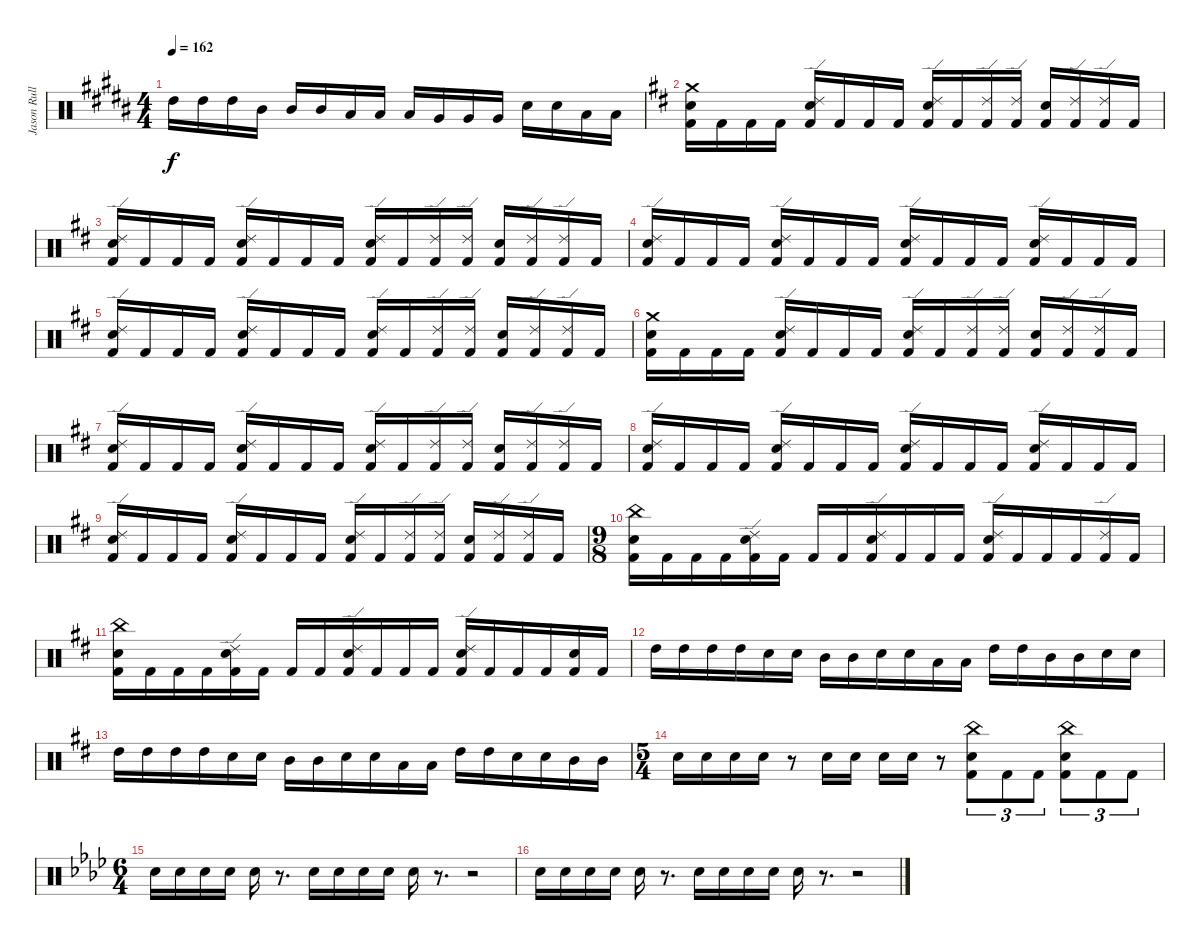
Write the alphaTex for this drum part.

\track ("Jason Rullo" "Jason Rull") {instrument percussion}
\staff {score}
\articulation defaults
\ts (4 4)
\tempo 162
\clef neutral
\ks g#minor "High Tom (hit)".16{dy f} "High Tom (hit)".16 "High Tom (hit)".16 "Mid Tom (hit)".16 "Mid Tom (hit)".16 "Mid Tom (hit)".16 "Low Tom (hit)".16 "Low Tom (hit)".16 "Low Tom (hit)".16 "Very Low Tom (hit)".16 "Very Low Tom (hit)".16 "Very Low Tom (hit)".16 "Electric Snare (hit)".16 "Electric Snare (hit)".16 "Low Tom (hit)".16 "Low Tom (hit)".16
|
\ks d
("Kick (hit) 2" "Electric Snare (hit)" "Crash medium (hit)").16 "Kick (hit) 2".16 "Kick (hit) 2".16 "Kick (hit) 2".16 ("Ride (edge) 2" "Electric Snare (hit)" "Kick (hit) 2").16 "Kick (hit) 2".16 "Kick (hit) 2".16 "Kick (hit) 2".16 ("Ride (edge) 2" "Electric Snare (hit)" "Kick (hit) 2").16 "Kick (hit) 2".16 ("Ride (edge) 2" "Kick (hit) 2").16 ("Ride (edge) 2" "Kick (hit) 2").16 ("Electric Snare (hit)" "Kick (hit) 2").16 ("Ride (edge) 2" "Kick (hit) 2").16 ("Ride (edge) 2" "Kick (hit) 2").16 "Kick (hit) 2".16 |
("Kick (hit) 2" "Electric Snare (hit)" "Ride (edge) 2").16 "Kick (hit) 2".16 "Kick (hit) 2".16 "Kick (hit) 2".16 ("Ride (edge) 2" "Electric Snare (hit)" "Kick (hit) 2").16 "Kick (hit) 2".16 "Kick (hit) 2".16 "Kick (hit) 2".16 ("Ride (edge) 2" "Electric Snare (hit)" "Kick (hit) 2").16 "Kick (hit) 2".16 ("Ride (edge) 2" "Kick (hit) 2").16 ("Ride (edge) 2" "Kick (hit) 2").16 ("Electric Snare (hit)" "Kick (hit) 2").16 ("Ride (edge) 2" "Kick (hit) 2").16 ("Ride (edge) 2" "Kick (hit) 2").16 "Kick (hit) 2".16 |
("Kick (hit) 2" "Electric Snare (hit)" "Ride (edge) 2").16 "Kick (hit) 2".16 "Kick (hit) 2".16 "Kick (hit) 2".16 ("Ride (edge) 2" "Electric Snare (hit)" "Kick (hit) 2").16 "Kick (hit) 2".16 "Kick (hit) 2".16 "Kick (hit) 2".16 ("Ride (edge) 2" "Electric Snare (hit)" "Kick (hit) 2").16 "Kick (hit) 2".16 "Kick (hit) 2".16 "Kick (hit) 2".16 ("Ride (edge) 2" "Electric Snare (hit)" "Kick (hit) 2").16 "Kick (hit) 2".16 "Kick (hit) 2".16 "Kick (hit) 2".16 |
("Kick (hit) 2" "Electric Snare (hit)" "Ride (edge) 2").16 "Kick (hit) 2".16 "Kick (hit) 2".16 "Kick (hit) 2".16 ("Ride (edge) 2" "Electric Snare (hit)" "Kick (hit) 2").16 "Kick (hit) 2".16 "Kick (hit) 2".16 "Kick (hit) 2".16 ("Ride (edge) 2" "Electric Snare (hit)" "Kick (hit) 2").16 "Kick (hit) 2".16 ("Ride (edge) 2" "Kick (hit) 2").16 ("Ride (edge) 2" "Kick (hit) 2").16 ("Electric Snare (hit)" "Kick (hit) 2").16 ("Ride (edge) 2" "Kick (hit) 2").16 ("Ride (edge) 2" "Kick (hit) 2").16 "Kick (hit) 2".16 |
("Kick (hit) 2" "Electric Snare (hit)" "Crash medium (hit)").16 "Kick (hit) 2".16 "Kick (hit) 2".16 "Kick (hit) 2".16 ("Ride (edge) 2" "Electric Snare (hit)" "Kick (hit) 2").16 "Kick (hit) 2".16 "Kick (hit) 2".16 "Kick (hit) 2".16 ("Ride (edge) 2" "Electric Snare (hit)" "Kick (hit) 2").16 "Kick (hit) 2".16 ("Ride (edge) 2" "Kick (hit) 2").16 ("Ride (edge) 2" "Kick (hit) 2").16 ("Electric Snare (hit)" "Kick (hit) 2").16 ("Ride (edge) 2" "Kick (hit) 2").16 ("Ride (edge) 2" "Kick (hit) 2").16 "Kick (hit) 2".16 |
("Kick (hit) 2" "Electric Snare (hit)" "Ride (edge) 2").16 "Kick (hit) 2".16 "Kick (hit) 2".16 "Kick (hit) 2".16 ("Ride (edge) 2" "Electric Snare (hit)" "Kick (hit) 2").16 "Kick (hit) 2".16 "Kick (hit) 2".16 "Kick (hit) 2".16 ("Ride (edge) 2" "Electric Snare (hit)" "Kick (hit) 2").16 "Kick (hit) 2".16 ("Ride (edge) 2" "Kick (hit) 2").16 ("Ride (edge) 2" "Kick (hit) 2").16 ("Electric Snare (hit)" "Kick (hit) 2").16 ("Ride (edge) 2" "Kick (hit) 2").16 ("Ride (edge) 2" "Kick (hit) 2").16 "Kick (hit) 2".16 |
("Kick (hit) 2" "Ride (edge) 2" "Electric Snare (hit)").16 "Kick (hit) 2".16 "Kick (hit) 2".16 "Kick (hit) 2".16 ("Ride (edge) 2" "Electric Snare (hit)" "Kick (hit) 2").16 "Kick (hit) 2".16 "Kick (hit) 2".16 "Kick (hit) 2".16 ("Ride (edge) 2" "Electric Snare (hit)" "Kick (hit) 2").16 "Kick (hit) 2".16 "Kick (hit) 2".16 "Kick (hit) 2".16 ("Ride (edge) 2" "Electric Snare (hit)" "Kick (hit) 2").16 "Kick (hit) 2".16 "Kick (hit) 2".16 "Kick (hit) 2".16 |
("Kick (hit) 2" "Electric Snare (hit)" "Ride (edge) 2").16 "Kick (hit) 2".16 "Kick (hit) 2".16 "Kick (hit) 2".16 ("Ride (edge) 2" "Electric Snare (hit)" "Kick (hit) 2").16 "Kick (hit) 2".16 "Kick (hit) 2".16 "Kick (hit) 2".16 ("Ride (edge) 2" "Electric Snare (hit)" "Kick (hit) 2").16 "Kick (hit) 2".16 ("Ride (edge) 2" "Kick (hit) 2").16 ("Ride (edge) 2" "Kick (hit) 2").16 ("Electric Snare (hit)" "Kick (hit) 2").16 ("Ride (edge) 2" "Kick (hit) 2").16 ("Ride (edge) 2" "Kick (hit) 2").16 "Kick (hit) 2".16 |
\ts (9 8)
("China (hit)" "Electric Snare (hit)" "Kick (hit) 2").16 "Kick (hit) 2".16 "Kick (hit) 2".16 "Kick (hit) 2".16 ("Ride (edge) 2" "Electric Snare (hit)" "Kick (hit) 2").16 "Kick (hit) 2".16 "Kick (hit) 2".16 "Kick (hit) 2".16 ("Ride (edge) 2" "Electric Snare (hit)" "Kick (hit) 2").16 "Kick (hit) 2".16 "Kick (hit) 2".16 "Kick (hit) 2".16 ("Ride (edge) 2" "Electric Snare (hit)" "Kick (hit) 2").16 "Kick (hit) 2".16 "Kick (hit) 2".16 "Kick (hit) 2".16 ("Ride (edge) 2" "Kick (hit) 2").16 "Kick (hit) 2".16 |
("Kick (hit) 2" "Electric Snare (hit)" "China (hit)").16 "Kick (hit) 2".16 "Kick (hit) 2".16 "Kick (hit) 2".16 ("Ride (edge) 2" "Electric Snare (hit)" "Kick (hit) 2").16 "Kick (hit) 2".16 "Kick (hit) 2".16 "Kick (hit) 2".16 ("Ride (edge) 2" "Electric Snare (hit)" "Kick (hit) 2").16 "Kick (hit) 2".16 "Kick (hit) 2".16 "Kick (hit) 2".16 ("Ride (edge) 2" "Electric Snare (hit)" "Kick (hit) 2").16 "Kick (hit) 2".16 "Kick (hit) 2".16 "Kick (hit) 2".16 ("Electric Snare (hit)" "Kick (hit) 2").16 "Kick (hit) 2".16 |
"High Tom (hit)".16 "High Tom (hit)".16 "High Tom (hit)".16 "High Tom (hit)".16 "Electric Snare (hit)".16 "Electric Snare (hit)".16 "Mid Tom (hit)".16 "Mid Tom (hit)".16 "Electric Snare (hit)".16 "Electric Snare (hit)".16 "Low Tom (hit)".16 "Low Tom (hit)".16 "High Tom (hit)".16 "High Tom (hit)".16 "Mid Tom (hit)".16 "Mid Tom (hit)".16 "Electric Snare (hit)".16 "Electric Snare (hit)".16 |
"High Tom (hit)".16 "High Tom (hit)".16 "High Tom (hit)".16 "High Tom (hit)".16 "Electric Snare (hit)".16 "Electric Snare (hit)".16 "Mid Tom (hit)".16 "Mid Tom (hit)".16 "Electric Snare (hit)".16 "Electric Snare (hit)".16 "Low Tom (hit)".16 "Low Tom (hit)".16 "High Tom (hit)".16 "High Tom (hit)".16 "Electric Snare (hit)".16 "Electric Snare (hit)".16 "Mid Tom (hit)".16 "Mid Tom (hit)".16 |
\ts (5 4)
"Electric Snare (hit)".16 "Electric Snare (hit)".16 "Electric Snare (hit)".16 "Electric Snare (hit)".16 r.8 "Electric Snare (hit)".16 "Electric Snare (hit)".16 "Electric Snare (hit)".16 "Electric Snare (hit)".16 r.8 ("China (hit)" "Electric Snare (hit)" "Kick (hit) 2").8{tu (3 2)} "Kick (hit) 2".8{tu (3 2)} "Kick (hit) 2".8{tu (3 2)} ("China (hit)" "Electric Snare (hit)" "Kick (hit) 2").8{tu (3 2)} "Kick (hit) 2".8{tu (3 2)} "Kick (hit) 2".8{tu (3 2)} |
\ts (6 4)
\ks fminor "Electric Snare (hit)".16 "Electric Snare (hit)".16 "Electric Snare (hit)".16 "Electric Snare (hit)".16 "Electric Snare (hit)".16
r.8{d} "Electric Snare (hit)".16 "Electric Snare (hit)".16 "Electric Snare (hit)".16 "Electric Snare (hit)".16 "Electric Snare (hit)".16 r.8{d} r.2 |
"Electric Snare (hit)".16 "Electric Snare (hit)".16 "Electric Snare (hit)".16 "Electric Snare (hit)".16 "Electric Snare (hit)".16 r.8{d} "Electric Snare (hit)".16 "Electric Snare (hit)".16 "Electric Snare (hit)".16 "Electric Snare (hit)".16 "Electric Snare (hit)".16 r.8{d} r.2
